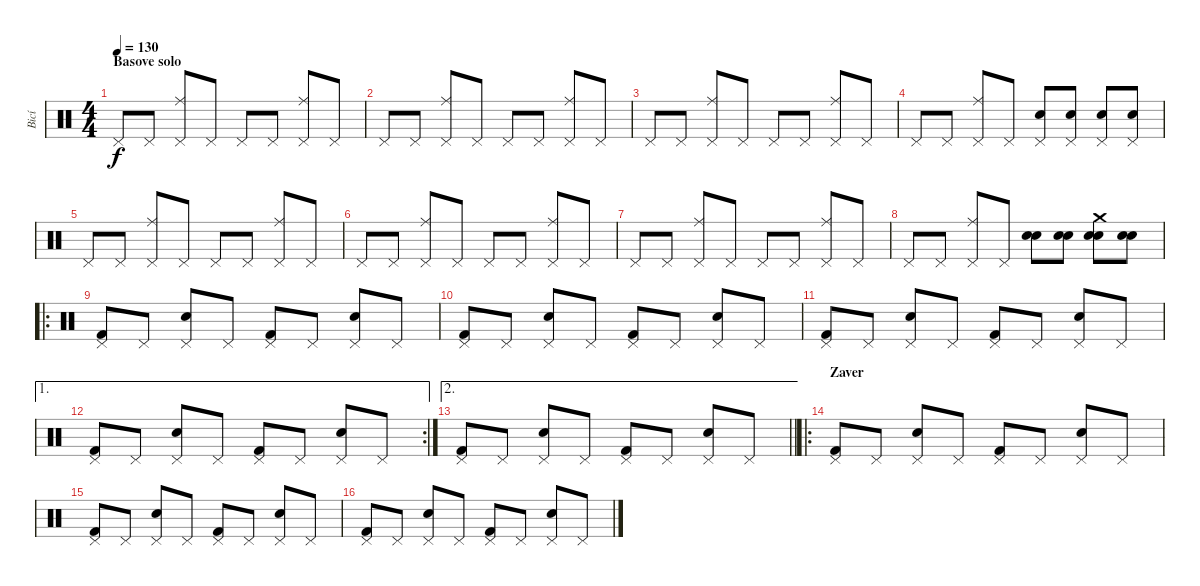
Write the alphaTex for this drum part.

\track ("Bicí" "Bicí") {instrument percussion}
\staff {score}
\articulation defaults
\ts (4 4)
\section ("" "Basove solo")
\tempo 130
\clef neutral
\ks c "Pedal Hi-Hat (hit)".8{dy f} "Pedal Hi-Hat (hit)".8
("Ride (middle)" "Pedal Hi-Hat (hit)").8 "Pedal Hi-Hat (hit)".8 "Pedal Hi-Hat (hit)".8 "Pedal Hi-Hat (hit)".8 ("Ride (middle)" "Pedal Hi-Hat (hit)").8 "Pedal Hi-Hat (hit)".8 |
"Pedal Hi-Hat (hit)".8 "Pedal Hi-Hat (hit)".8 ("Ride (middle)" "Pedal Hi-Hat (hit)").8 "Pedal Hi-Hat (hit)".8 "Pedal Hi-Hat (hit)".8 "Pedal Hi-Hat (hit)".8 ("Ride (middle)" "Pedal Hi-Hat (hit)").8 "Pedal Hi-Hat (hit)".8 |
"Pedal Hi-Hat (hit)".8 "Pedal Hi-Hat (hit)".8 ("Ride (middle)" "Pedal Hi-Hat (hit)").8 "Pedal Hi-Hat (hit)".8 "Pedal Hi-Hat (hit)".8 "Pedal Hi-Hat (hit)".8 ("Ride (middle)" "Pedal Hi-Hat (hit)").8 "Pedal Hi-Hat (hit)".8 |
"Pedal Hi-Hat (hit)".8 "Pedal Hi-Hat (hit)".8 ("Ride (middle)" "Pedal Hi-Hat (hit)").8 "Pedal Hi-Hat (hit)".8 ("Snare (hit) 2" "Pedal Hi-Hat (hit)").8 ("Snare (hit) 2" "Pedal Hi-Hat (hit)").8 ("Snare (hit) 2" "Pedal Hi-Hat (hit)").8 ("Snare (hit) 2" "Pedal Hi-Hat (hit)").8 |
"Pedal Hi-Hat (hit)".8 "Pedal Hi-Hat (hit)".8 ("Ride (middle)" "Pedal Hi-Hat (hit)").8 "Pedal Hi-Hat (hit)".8 "Pedal Hi-Hat (hit)".8 "Pedal Hi-Hat (hit)".8 ("Ride (middle)" "Pedal Hi-Hat (hit)").8 "Pedal Hi-Hat (hit)".8 |
"Pedal Hi-Hat (hit)".8 "Pedal Hi-Hat (hit)".8 ("Ride (middle)" "Pedal Hi-Hat (hit)").8 "Pedal Hi-Hat (hit)".8 "Pedal Hi-Hat (hit)".8 "Pedal Hi-Hat (hit)".8 ("Ride (middle)" "Pedal Hi-Hat (hit)").8 "Pedal Hi-Hat (hit)".8 |
"Pedal Hi-Hat (hit)".8 "Pedal Hi-Hat (hit)".8 ("Ride (middle)" "Pedal Hi-Hat (hit)").8 "Pedal Hi-Hat (hit)".8 "Pedal Hi-Hat (hit)".8 "Pedal Hi-Hat (hit)".8 ("Ride (middle)" "Pedal Hi-Hat (hit)").8 "Pedal Hi-Hat (hit)".8 |
"Pedal Hi-Hat (hit)".8 "Pedal Hi-Hat (hit)".8 ("Ride (middle)" "Pedal Hi-Hat (hit)").8 "Pedal Hi-Hat (hit)".8 ("Snare (hit) 2" "Electric Snare (hit)").8 ("Snare (hit) 2" "Electric Snare (hit)").8 ("Snare (hit) 2" "Crash medium (hit)" "Electric Snare (hit)").8 ("Snare (hit) 2" "Electric Snare (hit)").8 |
\ro
("Kick (hit) 2" "Pedal Hi-Hat (hit)").8 "Pedal Hi-Hat (hit)".8 ("Snare (hit) 2" "Pedal Hi-Hat (hit)").8 "Pedal Hi-Hat (hit)".8 ("Kick (hit) 2" "Pedal Hi-Hat (hit)").8 "Pedal Hi-Hat (hit)".8 ("Snare (hit) 2" "Pedal Hi-Hat (hit)").8 "Pedal Hi-Hat (hit)".8 |
("Kick (hit) 2" "Pedal Hi-Hat (hit)").8 "Pedal Hi-Hat (hit)".8 ("Snare (hit) 2" "Pedal Hi-Hat (hit)").8 "Pedal Hi-Hat (hit)".8 ("Kick (hit) 2" "Pedal Hi-Hat (hit)").8 "Pedal Hi-Hat (hit)".8 ("Snare (hit) 2" "Pedal Hi-Hat (hit)").8 "Pedal Hi-Hat (hit)".8 |
("Kick (hit) 2" "Pedal Hi-Hat (hit)").8 "Pedal Hi-Hat (hit)".8 ("Snare (hit) 2" "Pedal Hi-Hat (hit)").8 "Pedal Hi-Hat (hit)".8 ("Kick (hit) 2" "Pedal Hi-Hat (hit)").8 "Pedal Hi-Hat (hit)".8 ("Snare (hit) 2" "Pedal Hi-Hat (hit)").8 "Pedal Hi-Hat (hit)".8 |
\ae 1
\rc 2
("Kick (hit) 2" "Pedal Hi-Hat (hit)").8 "Pedal Hi-Hat (hit)".8 ("Snare (hit) 2" "Pedal Hi-Hat (hit)").8 "Pedal Hi-Hat (hit)".8 ("Kick (hit) 2" "Pedal Hi-Hat (hit)").8 "Pedal Hi-Hat (hit)".8 ("Snare (hit) 2" "Pedal Hi-Hat (hit)").8 "Pedal Hi-Hat (hit)".8 |
\ae 2
\barLineRight lightlight
("Kick (hit) 2" "Pedal Hi-Hat (hit)").8 "Pedal Hi-Hat (hit)".8 ("Snare (hit) 2" "Pedal Hi-Hat (hit)").8 "Pedal Hi-Hat (hit)".8 ("Kick (hit) 2" "Pedal Hi-Hat (hit)").8 "Pedal Hi-Hat (hit)".8 ("Snare (hit) 2" "Pedal Hi-Hat (hit)").8 "Pedal Hi-Hat (hit)".8 |
\ro
\section ("" "Zaver")
("Kick (hit) 2" "Pedal Hi-Hat (hit)").8 "Pedal Hi-Hat (hit)".8 ("Snare (hit) 2" "Pedal Hi-Hat (hit)").8 "Pedal Hi-Hat (hit)".8 ("Kick (hit) 2" "Pedal Hi-Hat (hit)").8 "Pedal Hi-Hat (hit)".8 ("Snare (hit) 2" "Pedal Hi-Hat (hit)").8 "Pedal Hi-Hat (hit)".8 |
("Kick (hit) 2" "Pedal Hi-Hat (hit)").8 "Pedal Hi-Hat (hit)".8 ("Snare (hit) 2" "Pedal Hi-Hat (hit)").8 "Pedal Hi-Hat (hit)".8 ("Kick (hit) 2" "Pedal Hi-Hat (hit)").8 "Pedal Hi-Hat (hit)".8 ("Snare (hit) 2" "Pedal Hi-Hat (hit)").8 "Pedal Hi-Hat (hit)".8 |
("Kick (hit) 2" "Pedal Hi-Hat (hit)").8 "Pedal Hi-Hat (hit)".8 ("Snare (hit) 2" "Pedal Hi-Hat (hit)").8 "Pedal Hi-Hat (hit)".8 ("Kick (hit) 2" "Pedal Hi-Hat (hit)").8 "Pedal Hi-Hat (hit)".8 ("Snare (hit) 2" "Pedal Hi-Hat (hit)").8 "Pedal Hi-Hat (hit)".8
